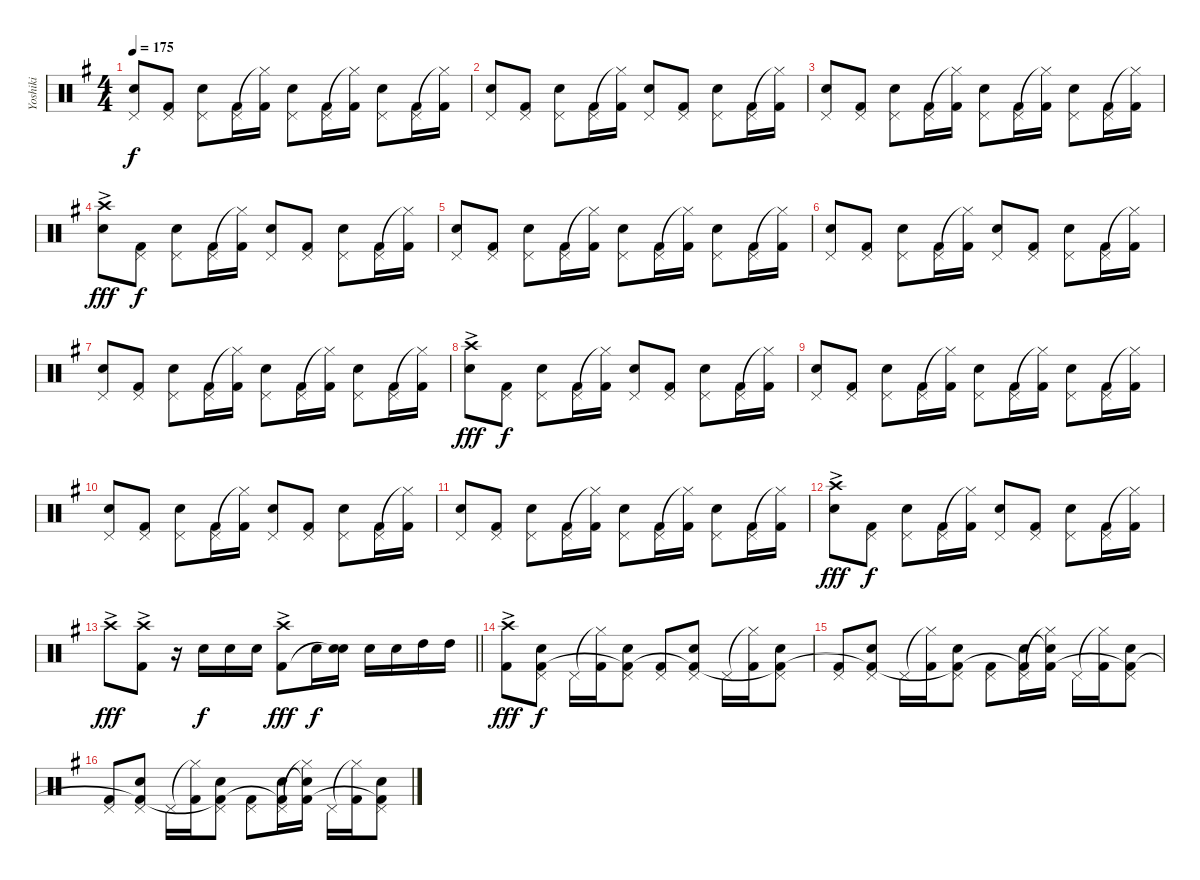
\track ("Yoshiki" "Yoshiki") {instrument percussion}
\staff {score}
\articulation defaults
\ts (4 4)
\tempo 175
\clef neutral
\ks g
("Pedal Hi-Hat (hit)" "Snare (hit) 2").8{dy f} ("Pedal Hi-Hat (hit)" "Kick (hit) 2").8 ("Pedal Hi-Hat (hit)" "Snare (hit) 2").8 ("Pedal Hi-Hat (hit)" "Kick (hit) 2").16 ("Hi-Hat (closed)"{t} "Kick (hit) 2").16 ("Pedal Hi-Hat (hit)" "Snare (hit) 2").8 ("Pedal Hi-Hat (hit)" "Kick (hit) 2").16 ("Hi-Hat (closed)"{t} "Kick (hit) 2").16 ("Pedal Hi-Hat (hit)" "Snare (hit) 2").8 ("Pedal Hi-Hat (hit)" "Kick (hit) 2").16 ("Hi-Hat (closed)"{t} "Kick (hit) 2").16 |
("Pedal Hi-Hat (hit)" "Snare (hit) 2").8 ("Pedal Hi-Hat (hit)" "Kick (hit) 2").8 ("Pedal Hi-Hat (hit)" "Snare (hit) 2").8 ("Pedal Hi-Hat (hit)" "Kick (hit) 2").16 ("Hi-Hat (closed)"{t} "Kick (hit) 2").16 ("Pedal Hi-Hat (hit)" "Snare (hit) 2").8 ("Pedal Hi-Hat (hit)" "Kick (hit) 2").8 ("Pedal Hi-Hat (hit)" "Snare (hit) 2").8 ("Pedal Hi-Hat (hit)" "Kick (hit) 2").16 ("Hi-Hat (closed)"{t} "Kick (hit) 2").16 |
("Pedal Hi-Hat (hit)" "Snare (hit) 2").8 ("Pedal Hi-Hat (hit)" "Kick (hit) 2").8 ("Pedal Hi-Hat (hit)" "Snare (hit) 2").8 ("Pedal Hi-Hat (hit)" "Kick (hit) 2").16 ("Hi-Hat (closed)"{t} "Kick (hit) 2").16 ("Pedal Hi-Hat (hit)" "Snare (hit) 2").8 ("Pedal Hi-Hat (hit)" "Kick (hit) 2").16 ("Hi-Hat (closed)"{t} "Kick (hit) 2").16 ("Pedal Hi-Hat (hit)" "Snare (hit) 2").8 ("Pedal Hi-Hat (hit)" "Kick (hit) 2").16 ("Hi-Hat (closed)"{t} "Kick (hit) 2").16 |
("Crash high (hit)"{ac} "Snare (hit) 2"{ac}).8{dy fff} ("Pedal Hi-Hat (hit)" "Kick (hit) 2").8{dy f} ("Pedal Hi-Hat (hit)" "Snare (hit) 2").8 ("Pedal Hi-Hat (hit)" "Kick (hit) 2").16 ("Hi-Hat (closed)"{t} "Kick (hit) 2").16 ("Pedal Hi-Hat (hit)" "Snare (hit) 2").8 ("Pedal Hi-Hat (hit)" "Kick (hit) 2").8 ("Pedal Hi-Hat (hit)" "Snare (hit) 2").8 ("Pedal Hi-Hat (hit)" "Kick (hit) 2").16 ("Hi-Hat (closed)"{t} "Kick (hit) 2").16 |
("Pedal Hi-Hat (hit)" "Snare (hit) 2").8 ("Pedal Hi-Hat (hit)" "Kick (hit) 2").8 ("Pedal Hi-Hat (hit)" "Snare (hit) 2").8 ("Pedal Hi-Hat (hit)" "Kick (hit) 2").16 ("Hi-Hat (closed)"{t} "Kick (hit) 2").16 ("Pedal Hi-Hat (hit)" "Snare (hit) 2").8 ("Pedal Hi-Hat (hit)" "Kick (hit) 2").16 ("Hi-Hat (closed)"{t} "Kick (hit) 2").16 ("Pedal Hi-Hat (hit)" "Snare (hit) 2").8 ("Pedal Hi-Hat (hit)" "Kick (hit) 2").16 ("Hi-Hat (closed)"{t} "Kick (hit) 2").16 |
("Pedal Hi-Hat (hit)" "Snare (hit) 2").8 ("Pedal Hi-Hat (hit)" "Kick (hit) 2").8 ("Pedal Hi-Hat (hit)" "Snare (hit) 2").8 ("Pedal Hi-Hat (hit)" "Kick (hit) 2").16 ("Hi-Hat (closed)"{t} "Kick (hit) 2").16 ("Pedal Hi-Hat (hit)" "Snare (hit) 2").8 ("Pedal Hi-Hat (hit)" "Kick (hit) 2").8 ("Pedal Hi-Hat (hit)" "Snare (hit) 2").8 ("Pedal Hi-Hat (hit)" "Kick (hit) 2").16 ("Hi-Hat (closed)"{t} "Kick (hit) 2").16 |
("Pedal Hi-Hat (hit)" "Snare (hit) 2").8 ("Pedal Hi-Hat (hit)" "Kick (hit) 2").8 ("Pedal Hi-Hat (hit)" "Snare (hit) 2").8 ("Pedal Hi-Hat (hit)" "Kick (hit) 2").16 ("Hi-Hat (closed)"{t} "Kick (hit) 2").16 ("Pedal Hi-Hat (hit)" "Snare (hit) 2").8 ("Pedal Hi-Hat (hit)" "Kick (hit) 2").16 ("Hi-Hat (closed)"{t} "Kick (hit) 2").16 ("Pedal Hi-Hat (hit)" "Snare (hit) 2").8 ("Pedal Hi-Hat (hit)" "Kick (hit) 2").16 ("Hi-Hat (closed)"{t} "Kick (hit) 2").16 |
("Crash high (hit)"{ac} "Snare (hit) 2"{ac}).8{dy fff} ("Pedal Hi-Hat (hit)" "Kick (hit) 2").8{dy f} ("Pedal Hi-Hat (hit)" "Snare (hit) 2").8 ("Pedal Hi-Hat (hit)" "Kick (hit) 2").16 ("Hi-Hat (closed)"{t} "Kick (hit) 2").16 ("Pedal Hi-Hat (hit)" "Snare (hit) 2").8 ("Pedal Hi-Hat (hit)" "Kick (hit) 2").8 ("Pedal Hi-Hat (hit)" "Snare (hit) 2").8 ("Pedal Hi-Hat (hit)" "Kick (hit) 2").16 ("Hi-Hat (closed)"{t} "Kick (hit) 2").16 |
("Pedal Hi-Hat (hit)" "Snare (hit) 2").8 ("Pedal Hi-Hat (hit)" "Kick (hit) 2").8 ("Pedal Hi-Hat (hit)" "Snare (hit) 2").8 ("Pedal Hi-Hat (hit)" "Kick (hit) 2").16 ("Hi-Hat (closed)"{t} "Kick (hit) 2").16 ("Pedal Hi-Hat (hit)" "Snare (hit) 2").8 ("Pedal Hi-Hat (hit)" "Kick (hit) 2").16 ("Hi-Hat (closed)"{t} "Kick (hit) 2").16 ("Pedal Hi-Hat (hit)" "Snare (hit) 2").8 ("Pedal Hi-Hat (hit)" "Kick (hit) 2").16 ("Hi-Hat (closed)"{t} "Kick (hit) 2").16 |
("Pedal Hi-Hat (hit)" "Snare (hit) 2").8 ("Pedal Hi-Hat (hit)" "Kick (hit) 2").8 ("Pedal Hi-Hat (hit)" "Snare (hit) 2").8 ("Pedal Hi-Hat (hit)" "Kick (hit) 2").16 ("Hi-Hat (closed)"{t} "Kick (hit) 2").16 ("Pedal Hi-Hat (hit)" "Snare (hit) 2").8 ("Pedal Hi-Hat (hit)" "Kick (hit) 2").8 ("Pedal Hi-Hat (hit)" "Snare (hit) 2").8 ("Pedal Hi-Hat (hit)" "Kick (hit) 2").16 ("Hi-Hat (closed)"{t} "Kick (hit) 2").16 |
("Pedal Hi-Hat (hit)" "Snare (hit) 2").8 ("Pedal Hi-Hat (hit)" "Kick (hit) 2").8 ("Pedal Hi-Hat (hit)" "Snare (hit) 2").8 ("Pedal Hi-Hat (hit)" "Kick (hit) 2").16 ("Hi-Hat (closed)"{t} "Kick (hit) 2").16 ("Pedal Hi-Hat (hit)" "Snare (hit) 2").8 ("Pedal Hi-Hat (hit)" "Kick (hit) 2").16 ("Hi-Hat (closed)"{t} "Kick (hit) 2").16 ("Pedal Hi-Hat (hit)" "Snare (hit) 2").8 ("Pedal Hi-Hat (hit)" "Kick (hit) 2").16 ("Hi-Hat (closed)"{t} "Kick (hit) 2").16 |
("Crash high (hit)"{ac} "Snare (hit) 2"{ac}).8{dy fff} ("Pedal Hi-Hat (hit)" "Kick (hit) 2").8{dy f} ("Pedal Hi-Hat (hit)" "Snare (hit) 2").8 ("Pedal Hi-Hat (hit)" "Kick (hit) 2").16 ("Hi-Hat (closed)"{t} "Kick (hit) 2").16 ("Pedal Hi-Hat (hit)" "Snare (hit) 2").8 ("Pedal Hi-Hat (hit)" "Kick (hit) 2").8 ("Pedal Hi-Hat (hit)" "Snare (hit) 2").8 ("Pedal Hi-Hat (hit)" "Kick (hit) 2").16 ("Hi-Hat (closed)"{t} "Kick (hit) 2").16 |
\barLineRight lightlight "Crash high (hit)"{ac}.8{dy fff}
("Crash high (hit)"{ac} "Kick (hit) 2").8 r.16 "Snare (hit) 2".16{dy f} "Snare (hit) 2".16 "Snare (hit) 2".16 ("Crash high (hit)"{ac} "Kick (hit) 2").8{dy fff} "Snare (hit) 2".16{dy f} ("Snare (hit) 2" "Snare (hit)"{t}).16 "Snare (hit) 2".16 "Snare (hit) 2".16 "High Tom (hit)".16 "High Tom (hit)".16 |
("Crash high (hit)"{ac} "Kick (hit) 2").8{dy fff} ("Pedal Hi-Hat (hit)" "Snare (hit) 2" "Kick (hit) 2").8{dy f} "Pedal Hi-Hat (hit)".16 ("Hi-Hat (closed)"{t} "Kick (hit) 2").16 ("Pedal Hi-Hat (hit)" "Snare (hit) 2" "Kick (hit) 2"{t}).8 ("Pedal Hi-Hat (hit)" "Kick (hit) 2").8 ("Pedal Hi-Hat (hit)" "Snare (hit) 2" "Kick (hit) 2"{t}).8 "Pedal Hi-Hat (hit)".16 ("Hi-Hat (closed)"{t} "Kick (hit) 2").16 ("Pedal Hi-Hat (hit)" "Snare (hit) 2" "Kick (hit) 2"{t}).8 |
("Pedal Hi-Hat (hit)" "Kick (hit) 2").8 ("Pedal Hi-Hat (hit)" "Snare (hit) 2" "Kick (hit) 2"{t}).8 "Pedal Hi-Hat (hit)".16 ("Hi-Hat (closed)"{t} "Kick (hit) 2").16 ("Pedal Hi-Hat (hit)" "Snare (hit) 2" "Kick (hit) 2"{t}).8 ("Pedal Hi-Hat (hit)" "Kick (hit) 2").8 ("Pedal Hi-Hat (hit)" "Snare (hit) 2" "Kick (hit) 2"{t}).16 ("Hi-Hat (closed)"{t} "Snare (hit) 2"{t} "Kick (hit) 2").16 "Pedal Hi-Hat (hit)".16 ("Hi-Hat (closed)"{t} "Kick (hit) 2").16 ("Pedal Hi-Hat (hit)" "Snare (hit) 2" "Kick (hit) 2"{t}).8 |
("Pedal Hi-Hat (hit)" "Kick (hit) 2").8 ("Pedal Hi-Hat (hit)" "Snare (hit) 2" "Kick (hit) 2"{t}).8 "Pedal Hi-Hat (hit)".16 ("Hi-Hat (closed)"{t} "Kick (hit) 2").16 ("Pedal Hi-Hat (hit)" "Snare (hit) 2" "Kick (hit) 2"{t}).8 ("Pedal Hi-Hat (hit)" "Kick (hit) 2").8 ("Pedal Hi-Hat (hit)" "Snare (hit) 2" "Kick (hit) 2"{t}).16 ("Hi-Hat (closed)"{t} "Snare (hit) 2"{t} "Kick (hit) 2").16 "Pedal Hi-Hat (hit)".16 ("Hi-Hat (closed)"{t} "Kick (hit) 2").16 ("Pedal Hi-Hat (hit)" "Snare (hit) 2" "Kick (hit) 2"{t}).8
